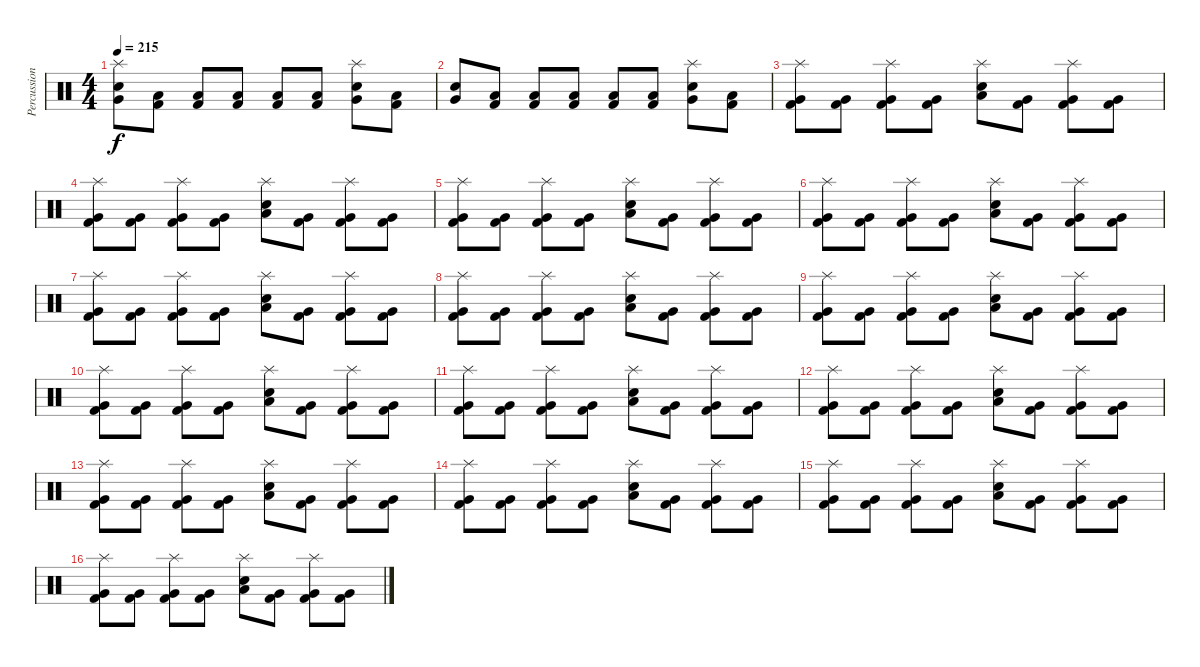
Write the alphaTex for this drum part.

\track ("Percussion" "Percussion") {instrument percussion}
\staff {score}
\articulation defaults
\ts (4 4)
\tempo 215
\clef neutral
\ks c
("Splash (hit)" "Electric Snare (hit)" "Very Low Tom (hit)").8{dy f} ("Kick (hit) 2" "Low Floor Tom (hit)").8 ("Kick (hit) 2" "Low Floor Tom (hit)").8 ("Kick (hit) 2" "Low Floor Tom (hit)").8 ("Kick (hit) 2" "Low Floor Tom (hit)").8 ("Kick (hit) 2" "Low Floor Tom (hit)").8 ("Splash (hit)" "Electric Snare (hit)" "Very Low Tom (hit)").8 ("Kick (hit) 2" "Low Floor Tom (hit)").8 |
("Electric Snare (hit)" "Very Low Tom (hit)").8 ("Kick (hit) 2" "Low Floor Tom (hit)").8 ("Kick (hit) 2" "Low Floor Tom (hit)").8 ("Kick (hit) 2" "Low Floor Tom (hit)").8 ("Kick (hit) 2" "Low Floor Tom (hit)").8 ("Kick (hit) 2" "Low Floor Tom (hit)").8 ("Splash (hit)" "Electric Snare (hit)" "Very Low Tom (hit)").8 ("Kick (hit) 2" "Low Floor Tom (hit)").8 |
("Splash (hit)" "Kick (hit) 2" "Very Low Tom (hit)").8 ("Kick (hit) 2" "Very Low Tom (hit)").8 ("Splash (hit)" "Kick (hit) 2" "Very Low Tom (hit)").8 ("Kick (hit) 2" "Very Low Tom (hit)").8 ("Splash (hit)" "Low Floor Tom (hit)" "Electric Snare (hit)").8 ("Kick (hit) 2" "Very Low Tom (hit)").8 ("Splash (hit)" "Kick (hit) 2" "Very Low Tom (hit)").8 ("Kick (hit) 2" "Very Low Tom (hit)").8 |
("Splash (hit)" "Kick (hit) 2" "Very Low Tom (hit)").8 ("Kick (hit) 2" "Very Low Tom (hit)").8 ("Splash (hit)" "Kick (hit) 2" "Very Low Tom (hit)").8 ("Kick (hit) 2" "Very Low Tom (hit)").8 ("Splash (hit)" "Low Floor Tom (hit)" "Electric Snare (hit)").8 ("Kick (hit) 2" "Very Low Tom (hit)").8 ("Splash (hit)" "Kick (hit) 2" "Very Low Tom (hit)").8 ("Kick (hit) 2" "Very Low Tom (hit)").8 |
("Splash (hit)" "Kick (hit) 2" "Very Low Tom (hit)").8 ("Kick (hit) 2" "Very Low Tom (hit)").8 ("Splash (hit)" "Kick (hit) 2" "Very Low Tom (hit)").8 ("Kick (hit) 2" "Very Low Tom (hit)").8 ("Splash (hit)" "Low Floor Tom (hit)" "Electric Snare (hit)").8 ("Kick (hit) 2" "Very Low Tom (hit)").8 ("Splash (hit)" "Kick (hit) 2" "Very Low Tom (hit)").8 ("Kick (hit) 2" "Very Low Tom (hit)").8 |
("Splash (hit)" "Kick (hit) 2" "Very Low Tom (hit)").8 ("Kick (hit) 2" "Very Low Tom (hit)").8 ("Splash (hit)" "Kick (hit) 2" "Very Low Tom (hit)").8 ("Kick (hit) 2" "Very Low Tom (hit)").8 ("Splash (hit)" "Low Floor Tom (hit)" "Electric Snare (hit)").8 ("Kick (hit) 2" "Very Low Tom (hit)").8 ("Splash (hit)" "Kick (hit) 2" "Very Low Tom (hit)").8 ("Kick (hit) 2" "Very Low Tom (hit)").8 |
("Splash (hit)" "Kick (hit) 2" "Very Low Tom (hit)").8 ("Kick (hit) 2" "Very Low Tom (hit)").8 ("Splash (hit)" "Kick (hit) 2" "Very Low Tom (hit)").8 ("Kick (hit) 2" "Very Low Tom (hit)").8 ("Splash (hit)" "Low Floor Tom (hit)" "Electric Snare (hit)").8 ("Kick (hit) 2" "Very Low Tom (hit)").8 ("Splash (hit)" "Kick (hit) 2" "Very Low Tom (hit)").8 ("Kick (hit) 2" "Very Low Tom (hit)").8 |
("Splash (hit)" "Kick (hit) 2" "Very Low Tom (hit)").8 ("Kick (hit) 2" "Very Low Tom (hit)").8 ("Splash (hit)" "Kick (hit) 2" "Very Low Tom (hit)").8 ("Kick (hit) 2" "Very Low Tom (hit)").8 ("Splash (hit)" "Low Floor Tom (hit)" "Electric Snare (hit)").8 ("Kick (hit) 2" "Very Low Tom (hit)").8 ("Splash (hit)" "Kick (hit) 2" "Very Low Tom (hit)").8 ("Kick (hit) 2" "Very Low Tom (hit)").8 |
("Splash (hit)" "Kick (hit) 2" "Very Low Tom (hit)").8 ("Kick (hit) 2" "Very Low Tom (hit)").8 ("Splash (hit)" "Kick (hit) 2" "Very Low Tom (hit)").8 ("Kick (hit) 2" "Very Low Tom (hit)").8 ("Splash (hit)" "Low Floor Tom (hit)" "Electric Snare (hit)").8 ("Kick (hit) 2" "Very Low Tom (hit)").8 ("Splash (hit)" "Kick (hit) 2" "Very Low Tom (hit)").8 ("Kick (hit) 2" "Very Low Tom (hit)").8 |
("Splash (hit)" "Kick (hit) 2" "Very Low Tom (hit)").8 ("Kick (hit) 2" "Very Low Tom (hit)").8 ("Splash (hit)" "Kick (hit) 2" "Very Low Tom (hit)").8 ("Kick (hit) 2" "Very Low Tom (hit)").8 ("Splash (hit)" "Low Floor Tom (hit)" "Electric Snare (hit)").8 ("Kick (hit) 2" "Very Low Tom (hit)").8 ("Splash (hit)" "Kick (hit) 2" "Very Low Tom (hit)").8 ("Kick (hit) 2" "Very Low Tom (hit)").8 |
("Splash (hit)" "Kick (hit) 2" "Very Low Tom (hit)").8 ("Kick (hit) 2" "Very Low Tom (hit)").8 ("Splash (hit)" "Kick (hit) 2" "Very Low Tom (hit)").8 ("Kick (hit) 2" "Very Low Tom (hit)").8 ("Splash (hit)" "Low Floor Tom (hit)" "Electric Snare (hit)").8 ("Kick (hit) 2" "Very Low Tom (hit)").8 ("Splash (hit)" "Kick (hit) 2" "Very Low Tom (hit)").8 ("Kick (hit) 2" "Very Low Tom (hit)").8 |
("Splash (hit)" "Kick (hit) 2" "Very Low Tom (hit)").8 ("Kick (hit) 2" "Very Low Tom (hit)").8 ("Splash (hit)" "Kick (hit) 2" "Very Low Tom (hit)").8 ("Kick (hit) 2" "Very Low Tom (hit)").8 ("Splash (hit)" "Low Floor Tom (hit)" "Electric Snare (hit)").8 ("Kick (hit) 2" "Very Low Tom (hit)").8 ("Splash (hit)" "Kick (hit) 2" "Very Low Tom (hit)").8 ("Kick (hit) 2" "Very Low Tom (hit)").8 |
("Splash (hit)" "Kick (hit) 2" "Very Low Tom (hit)").8 ("Kick (hit) 2" "Very Low Tom (hit)").8 ("Splash (hit)" "Kick (hit) 2" "Very Low Tom (hit)").8 ("Kick (hit) 2" "Very Low Tom (hit)").8 ("Splash (hit)" "Low Floor Tom (hit)" "Electric Snare (hit)").8 ("Kick (hit) 2" "Very Low Tom (hit)").8 ("Splash (hit)" "Kick (hit) 2" "Very Low Tom (hit)").8 ("Kick (hit) 2" "Very Low Tom (hit)").8 |
("Splash (hit)" "Kick (hit) 2" "Very Low Tom (hit)").8 ("Kick (hit) 2" "Very Low Tom (hit)").8 ("Splash (hit)" "Kick (hit) 2" "Very Low Tom (hit)").8 ("Kick (hit) 2" "Very Low Tom (hit)").8 ("Splash (hit)" "Low Floor Tom (hit)" "Electric Snare (hit)").8 ("Kick (hit) 2" "Very Low Tom (hit)").8 ("Splash (hit)" "Kick (hit) 2" "Very Low Tom (hit)").8 ("Kick (hit) 2" "Very Low Tom (hit)").8 |
("Splash (hit)" "Kick (hit) 2" "Very Low Tom (hit)").8 ("Kick (hit) 2" "Very Low Tom (hit)").8 ("Splash (hit)" "Kick (hit) 2" "Very Low Tom (hit)").8 ("Kick (hit) 2" "Very Low Tom (hit)").8 ("Splash (hit)" "Low Floor Tom (hit)" "Electric Snare (hit)").8 ("Kick (hit) 2" "Very Low Tom (hit)").8 ("Splash (hit)" "Kick (hit) 2" "Very Low Tom (hit)").8 ("Kick (hit) 2" "Very Low Tom (hit)").8 |
("Splash (hit)" "Kick (hit) 2" "Very Low Tom (hit)").8 ("Kick (hit) 2" "Very Low Tom (hit)").8 ("Splash (hit)" "Kick (hit) 2" "Very Low Tom (hit)").8 ("Kick (hit) 2" "Very Low Tom (hit)").8 ("Splash (hit)" "Low Floor Tom (hit)" "Electric Snare (hit)").8 ("Kick (hit) 2" "Very Low Tom (hit)").8 ("Splash (hit)" "Kick (hit) 2" "Very Low Tom (hit)").8 ("Kick (hit) 2" "Very Low Tom (hit)").8
